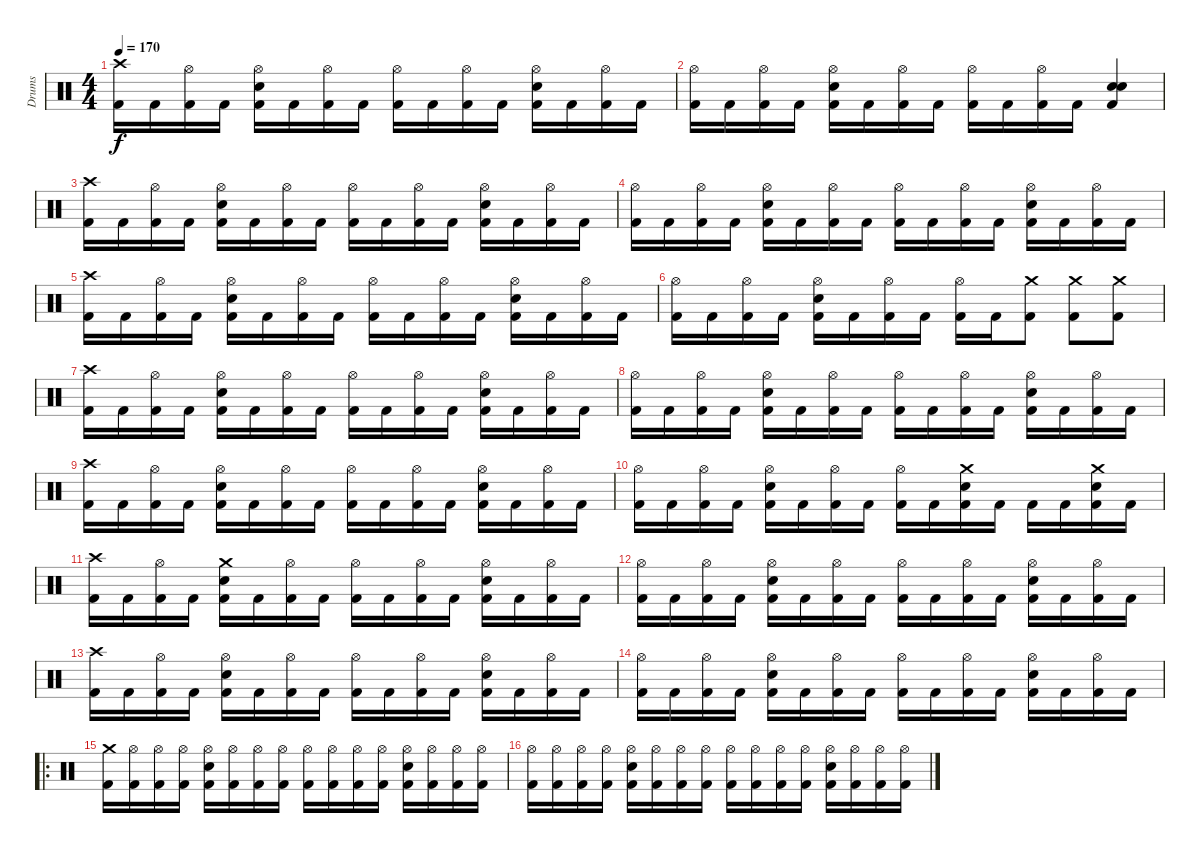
\track ("Drums" "Drums") {instrument percussion}
\staff {score}
\articulation defaults
\ts (4 4)
\tempo 170
\clef neutral
\ks c
("Crash high (hit)" "Kick (hit) 2").16{dy f} "Kick (hit) 2".16 ("Hi-Hat (open)" "Kick (hit) 2").16 "Kick (hit) 2".16 ("Hi-Hat (open)" "Electric Snare (hit)" "Kick (hit) 2").16 "Kick (hit) 2".16 ("Hi-Hat (open)" "Kick (hit) 2").16 "Kick (hit) 2".16 ("Hi-Hat (open)" "Kick (hit) 2").16 "Kick (hit) 2".16 ("Hi-Hat (open)" "Kick (hit) 2").16 "Kick (hit) 2".16 ("Hi-Hat (open)" "Electric Snare (hit)" "Kick (hit) 2").16 "Kick (hit) 2".16 ("Hi-Hat (open)" "Kick (hit) 2").16 "Kick (hit) 2".16 |
("Hi-Hat (open)" "Kick (hit) 2").16 "Kick (hit) 2".16 ("Hi-Hat (open)" "Kick (hit) 2").16 "Kick (hit) 2".16 ("Hi-Hat (open)" "Electric Snare (hit)" "Kick (hit) 2").16 "Kick (hit) 2".16 ("Hi-Hat (open)" "Kick (hit) 2").16 "Kick (hit) 2".16 ("Hi-Hat (open)" "Kick (hit) 2").16 "Kick (hit) 2".16 ("Hi-Hat (open)" "Kick (hit) 2").16 "Kick (hit) 2".16 ("Electric Snare (hit)" "Electric Snare (hit)" "Kick (hit) 2").4 |
("Crash high (hit)" "Kick (hit) 2").16 "Kick (hit) 2".16 ("Hi-Hat (open)" "Kick (hit) 2").16 "Kick (hit) 2".16 ("Hi-Hat (open)" "Electric Snare (hit)" "Kick (hit) 2").16 "Kick (hit) 2".16 ("Hi-Hat (open)" "Kick (hit) 2").16 "Kick (hit) 2".16 ("Hi-Hat (open)" "Kick (hit) 2").16 "Kick (hit) 2".16 ("Hi-Hat (open)" "Kick (hit) 2").16 "Kick (hit) 2".16 ("Hi-Hat (open)" "Electric Snare (hit)" "Kick (hit) 2").16 "Kick (hit) 2".16 ("Hi-Hat (open)" "Kick (hit) 2").16 "Kick (hit) 2".16 |
("Hi-Hat (open)" "Kick (hit) 2").16 "Kick (hit) 2".16 ("Hi-Hat (open)" "Kick (hit) 2").16 "Kick (hit) 2".16 ("Hi-Hat (open)" "Electric Snare (hit)" "Kick (hit) 2").16 "Kick (hit) 2".16 ("Hi-Hat (open)" "Kick (hit) 2").16 "Kick (hit) 2".16 ("Hi-Hat (open)" "Kick (hit) 2").16 "Kick (hit) 2".16 ("Hi-Hat (open)" "Kick (hit) 2").16 "Kick (hit) 2".16 ("Hi-Hat (open)" "Electric Snare (hit)" "Kick (hit) 2").16 "Kick (hit) 2".16 ("Hi-Hat (open)" "Kick (hit) 2").16 "Kick (hit) 2".16 |
("Crash high (hit)" "Kick (hit) 2").16 "Kick (hit) 2".16 ("Hi-Hat (open)" "Kick (hit) 2").16 "Kick (hit) 2".16 ("Hi-Hat (open)" "Electric Snare (hit)" "Kick (hit) 2").16 "Kick (hit) 2".16 ("Hi-Hat (open)" "Kick (hit) 2").16 "Kick (hit) 2".16 ("Hi-Hat (open)" "Kick (hit) 2").16 "Kick (hit) 2".16 ("Hi-Hat (open)" "Kick (hit) 2").16 "Kick (hit) 2".16 ("Hi-Hat (open)" "Electric Snare (hit)" "Kick (hit) 2").16 "Kick (hit) 2".16 ("Hi-Hat (open)" "Kick (hit) 2").16 "Kick (hit) 2".16 |
("Hi-Hat (open)" "Kick (hit) 2").16 "Kick (hit) 2".16 ("Hi-Hat (open)" "Kick (hit) 2").16 "Kick (hit) 2".16 ("Hi-Hat (open)" "Electric Snare (hit)" "Kick (hit) 2").16 "Kick (hit) 2".16 ("Hi-Hat (open)" "Kick (hit) 2").16 "Kick (hit) 2".16 ("Hi-Hat (open)" "Kick (hit) 2").16 "Kick (hit) 2".16 ("Crash medium (hit)" "Kick (hit) 2").8 ("Crash medium (hit)" "Kick (hit) 2").8 ("Crash medium (hit)" "Kick (hit) 2").8 |
("Crash high (hit)" "Kick (hit) 2").16 "Kick (hit) 2".16 ("Hi-Hat (open)" "Kick (hit) 2").16 "Kick (hit) 2".16 ("Hi-Hat (open)" "Electric Snare (hit)" "Kick (hit) 2").16 "Kick (hit) 2".16 ("Hi-Hat (open)" "Kick (hit) 2").16 "Kick (hit) 2".16 ("Hi-Hat (open)" "Kick (hit) 2").16 "Kick (hit) 2".16 ("Hi-Hat (open)" "Kick (hit) 2").16 "Kick (hit) 2".16 ("Hi-Hat (open)" "Electric Snare (hit)" "Kick (hit) 2").16 "Kick (hit) 2".16 ("Hi-Hat (open)" "Kick (hit) 2").16 "Kick (hit) 2".16 |
("Hi-Hat (open)" "Kick (hit) 2").16 "Kick (hit) 2".16 ("Hi-Hat (open)" "Kick (hit) 2").16 "Kick (hit) 2".16 ("Hi-Hat (open)" "Electric Snare (hit)" "Kick (hit) 2").16 "Kick (hit) 2".16 ("Hi-Hat (open)" "Kick (hit) 2").16 "Kick (hit) 2".16 ("Hi-Hat (open)" "Kick (hit) 2").16 "Kick (hit) 2".16 ("Hi-Hat (open)" "Kick (hit) 2").16 "Kick (hit) 2".16 ("Hi-Hat (open)" "Electric Snare (hit)" "Kick (hit) 2").16 "Kick (hit) 2".16 ("Hi-Hat (open)" "Kick (hit) 2").16 "Kick (hit) 2".16 |
("Crash high (hit)" "Kick (hit) 2").16 "Kick (hit) 2".16 ("Hi-Hat (open)" "Kick (hit) 2").16 "Kick (hit) 2".16 ("Hi-Hat (open)" "Electric Snare (hit)" "Kick (hit) 2").16 "Kick (hit) 2".16 ("Hi-Hat (open)" "Kick (hit) 2").16 "Kick (hit) 2".16 ("Hi-Hat (open)" "Kick (hit) 2").16 "Kick (hit) 2".16 ("Hi-Hat (open)" "Kick (hit) 2").16 "Kick (hit) 2".16 ("Hi-Hat (open)" "Electric Snare (hit)" "Kick (hit) 2").16 "Kick (hit) 2".16 ("Hi-Hat (open)" "Kick (hit) 2").16 "Kick (hit) 2".16 |
("Hi-Hat (open)" "Kick (hit) 2").16 "Kick (hit) 2".16 ("Hi-Hat (open)" "Kick (hit) 2").16 "Kick (hit) 2".16 ("Hi-Hat (open)" "Electric Snare (hit)" "Kick (hit) 2").16 "Kick (hit) 2".16 ("Hi-Hat (open)" "Kick (hit) 2").16 "Kick (hit) 2".16 ("Hi-Hat (open)" "Kick (hit) 2").16 "Kick (hit) 2".16 ("Crash medium (hit)" "Electric Snare (hit)" "Kick (hit) 2").16 "Kick (hit) 2".16 "Kick (hit) 2".16 "Kick (hit) 2".16 ("Crash medium (hit)" "Electric Snare (hit)" "Kick (hit) 2").16 "Kick (hit) 2".16 |
("Crash high (hit)" "Kick (hit) 2").16 "Kick (hit) 2".16 ("Hi-Hat (open)" "Kick (hit) 2").16 "Kick (hit) 2".16 ("Crash medium (hit)" "Electric Snare (hit)" "Kick (hit) 2").16 "Kick (hit) 2".16 ("Hi-Hat (open)" "Kick (hit) 2").16 "Kick (hit) 2".16 ("Hi-Hat (open)" "Kick (hit) 2").16 "Kick (hit) 2".16 ("Hi-Hat (open)" "Kick (hit) 2").16 "Kick (hit) 2".16 ("Hi-Hat (open)" "Electric Snare (hit)" "Kick (hit) 2").16 "Kick (hit) 2".16 ("Hi-Hat (open)" "Kick (hit) 2").16 "Kick (hit) 2".16 |
("Hi-Hat (open)" "Kick (hit) 2").16 "Kick (hit) 2".16 ("Hi-Hat (open)" "Kick (hit) 2").16 "Kick (hit) 2".16 ("Hi-Hat (open)" "Electric Snare (hit)" "Kick (hit) 2").16 "Kick (hit) 2".16 ("Hi-Hat (open)" "Kick (hit) 2").16 "Kick (hit) 2".16 ("Hi-Hat (open)" "Kick (hit) 2").16 "Kick (hit) 2".16 ("Hi-Hat (open)" "Kick (hit) 2").16 "Kick (hit) 2".16 ("Hi-Hat (open)" "Electric Snare (hit)" "Kick (hit) 2").16 "Kick (hit) 2".16 ("Hi-Hat (open)" "Kick (hit) 2").16 "Kick (hit) 2".16 |
("Crash high (hit)" "Kick (hit) 2").16 "Kick (hit) 2".16 ("Hi-Hat (open)" "Kick (hit) 2").16 "Kick (hit) 2".16 ("Hi-Hat (open)" "Electric Snare (hit)" "Kick (hit) 2").16 "Kick (hit) 2".16 ("Hi-Hat (open)" "Kick (hit) 2").16 "Kick (hit) 2".16 ("Hi-Hat (open)" "Kick (hit) 2").16 "Kick (hit) 2".16 ("Hi-Hat (open)" "Kick (hit) 2").16 "Kick (hit) 2".16 ("Hi-Hat (open)" "Electric Snare (hit)" "Kick (hit) 2").16 "Kick (hit) 2".16 ("Hi-Hat (open)" "Kick (hit) 2").16 "Kick (hit) 2".16 |
("Hi-Hat (open)" "Kick (hit) 2").16 "Kick (hit) 2".16 ("Hi-Hat (open)" "Kick (hit) 2").16 "Kick (hit) 2".16 ("Hi-Hat (open)" "Electric Snare (hit)" "Kick (hit) 2").16 "Kick (hit) 2".16 ("Hi-Hat (open)" "Kick (hit) 2").16 "Kick (hit) 2".16 ("Hi-Hat (open)" "Kick (hit) 2").16 "Kick (hit) 2".16 ("Hi-Hat (open)" "Kick (hit) 2").16 "Kick (hit) 2".16 ("Hi-Hat (open)" "Electric Snare (hit)" "Kick (hit) 2").16 "Kick (hit) 2".16 ("Hi-Hat (open)" "Kick (hit) 2").16 "Kick (hit) 2".16 |
\ro
("Crash medium (hit)" "Kick (hit) 2").16 ("Hi-Hat (open)" "Kick (hit) 2").16 ("Hi-Hat (open)" "Kick (hit) 2").16 ("Hi-Hat (open)" "Kick (hit) 2").16 ("Hi-Hat (open)" "Electric Snare (hit)" "Kick (hit) 2").16 ("Hi-Hat (open)" "Kick (hit) 2").16 ("Hi-Hat (open)" "Kick (hit) 2").16 ("Hi-Hat (open)" "Kick (hit) 2").16 ("Hi-Hat (open)" "Kick (hit) 2").16 ("Hi-Hat (open)" "Kick (hit) 2").16 ("Hi-Hat (open)" "Kick (hit) 2").16 ("Hi-Hat (open)" "Kick (hit) 2").16 ("Hi-Hat (open)" "Electric Snare (hit)" "Kick (hit) 2").16 ("Hi-Hat (open)" "Kick (hit) 2").16 ("Hi-Hat (open)" "Kick (hit) 2").16 ("Hi-Hat (open)" "Kick (hit) 2").16 |
("Hi-Hat (open)" "Kick (hit) 2").16 ("Hi-Hat (open)" "Kick (hit) 2").16 ("Hi-Hat (open)" "Kick (hit) 2").16 ("Hi-Hat (open)" "Kick (hit) 2").16 ("Hi-Hat (open)" "Electric Snare (hit)" "Kick (hit) 2").16 ("Hi-Hat (open)" "Kick (hit) 2").16 ("Hi-Hat (open)" "Kick (hit) 2").16 ("Hi-Hat (open)" "Kick (hit) 2").16 ("Hi-Hat (open)" "Kick (hit) 2").16 ("Hi-Hat (open)" "Kick (hit) 2").16 ("Hi-Hat (open)" "Kick (hit) 2").16 ("Hi-Hat (open)" "Kick (hit) 2").16 ("Hi-Hat (open)" "Electric Snare (hit)" "Kick (hit) 2").16 ("Hi-Hat (open)" "Kick (hit) 2").16 ("Hi-Hat (open)" "Kick (hit) 2").16 ("Hi-Hat (open)" "Kick (hit) 2").16
